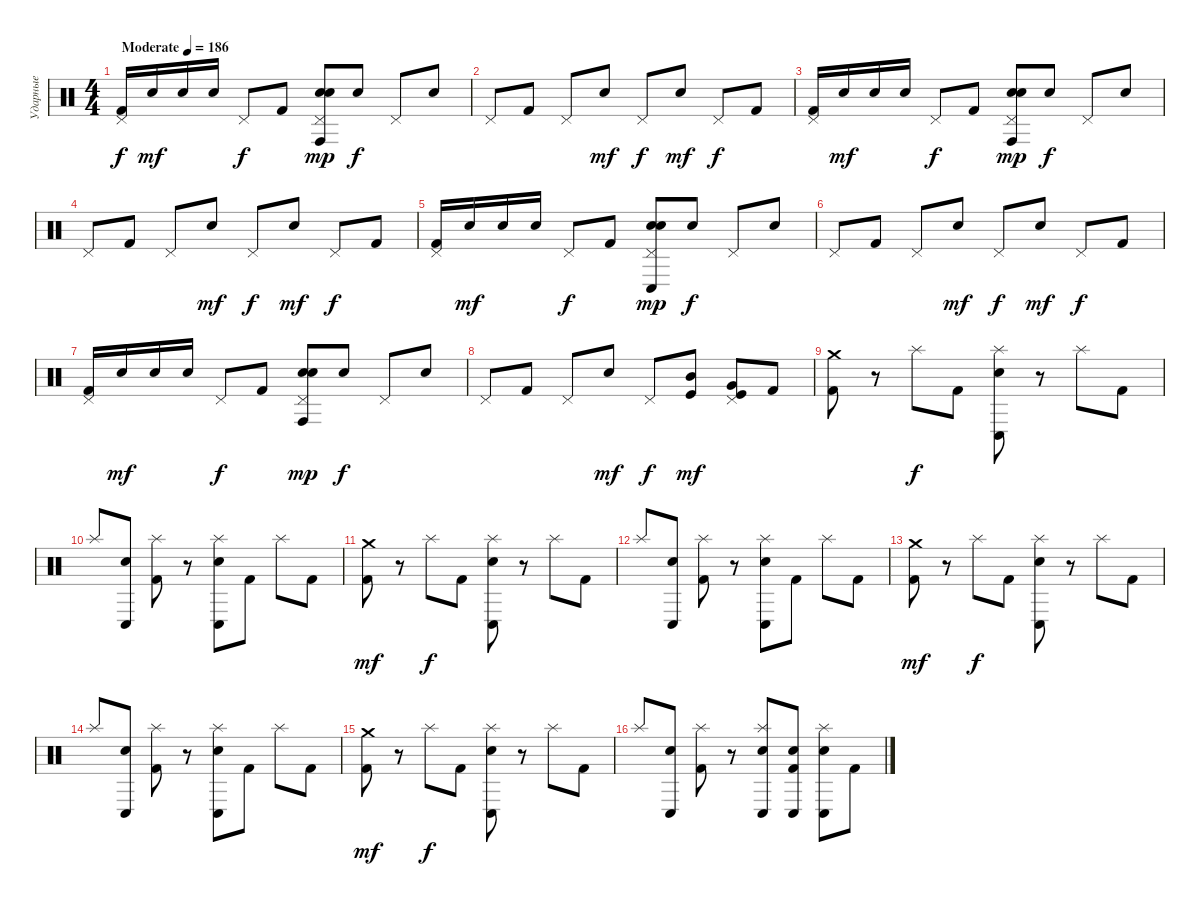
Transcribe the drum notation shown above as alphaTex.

\track ("Ударные" "Ударные") {instrument percussion}
\staff {score}
\articulation defaults
\ts (4 4)
\tempo (186 "Moderate")
\clef neutral
\ks c
("Pedal Hi-Hat (hit)" "Kick (hit) 2").16{dy f} "Electric Snare (hit)".16{dy mf} "Electric Snare (hit)".16 "Electric Snare (hit)".16 "Pedal Hi-Hat (hit)".8{dy f} "Kick (hit) 2".8 ("Pedal Hi-Hat (hit)" "Conga high (hit)" "Electric Snare (hit)" "Snare (hit) 2").8{dy mp} "Electric Snare (hit)".8{dy f} "Pedal Hi-Hat (hit)".8 "Electric Snare (hit)".8 |
"Pedal Hi-Hat (hit)".8 "Kick (hit) 2".8 "Pedal Hi-Hat (hit)".8 "Electric Snare (hit)".8{dy mf} "Pedal Hi-Hat (hit)".8{dy f} "Electric Snare (hit)".8{dy mf} "Pedal Hi-Hat (hit)".8{dy f} "Kick (hit) 2".8 |
("Pedal Hi-Hat (hit)" "Kick (hit) 2").16 "Electric Snare (hit)".16{dy mf} "Electric Snare (hit)".16 "Electric Snare (hit)".16 "Pedal Hi-Hat (hit)".8{dy f} "Kick (hit) 2".8 ("Pedal Hi-Hat (hit)" "Conga high (hit)" "Electric Snare (hit)" "Snare (hit) 2").8{dy mp} "Electric Snare (hit)".8{dy f} "Pedal Hi-Hat (hit)".8 "Electric Snare (hit)".8 |
"Pedal Hi-Hat (hit)".8 "Kick (hit) 2".8 "Pedal Hi-Hat (hit)".8 "Electric Snare (hit)".8{dy mf} "Pedal Hi-Hat (hit)".8{dy f} "Electric Snare (hit)".8{dy mf} "Pedal Hi-Hat (hit)".8{dy f} "Kick (hit) 2".8 |
("Pedal Hi-Hat (hit)" "Kick (hit) 2").16 "Electric Snare (hit)".16{dy mf} "Electric Snare (hit)".16 "Electric Snare (hit)".16 "Pedal Hi-Hat (hit)".8{dy f} "Kick (hit) 2".8 ("Pedal Hi-Hat (hit)" "Conga low (hit)" "Electric Snare (hit)" "Snare (hit) 2").8{dy mp} "Electric Snare (hit)".8{dy f} "Pedal Hi-Hat (hit)".8 "Electric Snare (hit)".8 |
"Pedal Hi-Hat (hit)".8 "Kick (hit) 2".8 "Pedal Hi-Hat (hit)".8 "Electric Snare (hit)".8{dy mf} "Pedal Hi-Hat (hit)".8{dy f} "Electric Snare (hit)".8{dy mf} "Pedal Hi-Hat (hit)".8{dy f} "Kick (hit) 2".8 |
("Pedal Hi-Hat (hit)" "Kick (hit) 2").16 "Electric Snare (hit)".16{dy mf} "Electric Snare (hit)".16 "Electric Snare (hit)".16 "Pedal Hi-Hat (hit)".8{dy f} "Kick (hit) 2".8 ("Pedal Hi-Hat (hit)" "Conga high (hit)" "Electric Snare (hit)" "Snare (hit) 2").8{dy mp} "Electric Snare (hit)".8{dy f} "Pedal Hi-Hat (hit)".8 "Electric Snare (hit)".8 |
"Pedal Hi-Hat (hit)".8 "Kick (hit) 2".8 "Pedal Hi-Hat (hit)".8 "Electric Snare (hit)".8{dy mf} "Pedal Hi-Hat (hit)".8{dy f} ("Mid Tom (hit)" "Kick (hit)").8{dy mf} ("Pedal Hi-Hat (hit)" "Very Low Tom (hit)" "Kick (hit)").8 "Kick (hit) 2".8 |
("Crash medium (hit)" "Kick (hit) 2").8 r.8 "Splash (hit)".8{dy f} "Kick (hit) 2".8 ("Splash (hit)" "Conga low (hit)" "Electric Snare (hit)").8 r.8 "Splash (hit)".8 "Kick (hit) 2".8 |
"Splash (hit)".8 ("Conga low (hit)" "Electric Snare (hit)").8 ("Splash (hit)" "Kick (hit) 2").8 r.8 ("Splash (hit)" "Conga low (hit)" "Electric Snare (hit)").8 "Kick (hit) 2".8 "Splash (hit)".8 "Kick (hit) 2".8 |
("Crash medium (hit)" "Kick (hit) 2").8{dy mf} r.8 "Splash (hit)".8{dy f} "Kick (hit) 2".8 ("Splash (hit)" "Conga low (hit)" "Electric Snare (hit)").8 r.8 "Splash (hit)".8 "Kick (hit) 2".8 |
"Splash (hit)".8 ("Conga low (hit)" "Electric Snare (hit)").8 ("Splash (hit)" "Kick (hit) 2").8 r.8 ("Splash (hit)" "Conga low (hit)" "Electric Snare (hit)").8 "Kick (hit) 2".8 "Splash (hit)".8 "Kick (hit) 2".8 |
("Crash medium (hit)" "Kick (hit) 2").8{dy mf} r.8 "Splash (hit)".8{dy f} "Kick (hit) 2".8 ("Splash (hit)" "Conga low (hit)" "Electric Snare (hit)").8 r.8 "Splash (hit)".8 "Kick (hit) 2".8 |
"Splash (hit)".8 ("Conga low (hit)" "Electric Snare (hit)").8 ("Splash (hit)" "Kick (hit) 2").8 r.8 ("Splash (hit)" "Conga low (hit)" "Electric Snare (hit)").8 "Kick (hit) 2".8 "Splash (hit)".8 "Kick (hit) 2".8 |
("Crash medium (hit)" "Kick (hit) 2").8{dy mf} r.8 "Splash (hit)".8{dy f} "Kick (hit) 2".8 ("Splash (hit)" "Conga low (hit)" "Electric Snare (hit)").8 r.8 "Splash (hit)".8 "Kick (hit) 2".8 |
"Splash (hit)".8 ("Conga low (hit)" "Electric Snare (hit)").8 ("Splash (hit)" "Kick (hit) 2").8 r.8 ("Splash (hit)" "Conga low (hit)" "Electric Snare (hit)").8 ("Conga low (hit)" "Electric Snare (hit)" "Kick (hit) 2").8 ("Splash (hit)" "Conga low (hit)" "Electric Snare (hit)").8 "Kick (hit) 2".8
